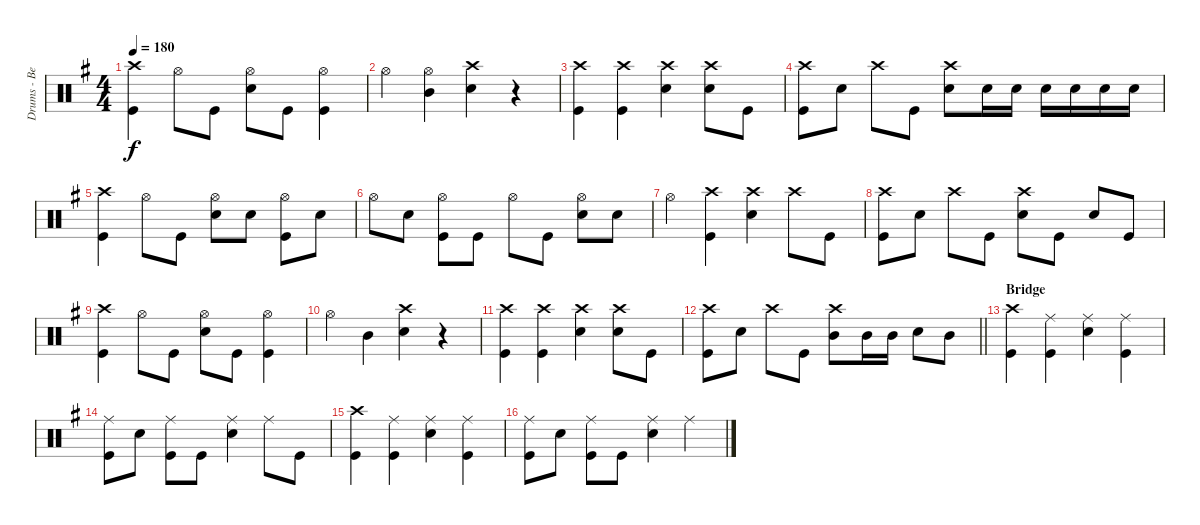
\track ("Drums - Ben Johnston" "Drums - Be") {instrument percussion}
\staff {score}
\articulation defaults
\ts (4 4)
\tempo 180
\clef neutral
\ks eminor
("Crash high (hit)" "Kick (hit)").4{dy f} "Hi-Hat (open)".8 "Kick (hit)".8 ("Hi-Hat (open)" "Snare (hit) 2").8 "Kick (hit)".8 ("Hi-Hat (open)" "Kick (hit)").4 |
"Hi-Hat (open)".4 ("Hi-Hat (open)" "Mid Tom (hit)").4 ("Crash high (hit)" "Snare (hit) 2").4 r.4 |
("Crash high (hit)" "Kick (hit)").4 ("Crash high (hit)" "Kick (hit)").4 ("Crash high (hit)" "Snare (hit) 2").4 ("Crash high (hit)" "Snare (hit) 2").8 "Kick (hit)".8 |
("Crash high (hit)" "Kick (hit)").8 "Snare (hit) 2".8 "Crash high (hit)".8 "Kick (hit)".8 ("Crash high (hit)" "Snare (hit) 2").8 "Snare (hit) 2".16 "Snare (hit) 2".16 "Snare (hit) 2".16 "Snare (hit) 2".16 "Snare (hit) 2".16 "Snare (hit) 2".16 |
("Crash high (hit)" "Kick (hit)").4 "Hi-Hat (open)".8 "Kick (hit)".8 ("Hi-Hat (open)" "Snare (hit) 2").8 "Snare (hit) 2".8 ("Hi-Hat (open)" "Kick (hit)").8 "Snare (hit) 2".8 |
"Hi-Hat (open)".8 "Snare (hit) 2".8 ("Hi-Hat (open)" "Kick (hit)").8 "Kick (hit)".8 "Hi-Hat (open)".8 "Kick (hit)".8 ("Hi-Hat (open)" "Snare (hit) 2").8 "Snare (hit) 2".8 |
"Hi-Hat (open)".4 ("Crash high (hit)" "Kick (hit)").4 ("Crash high (hit)" "Snare (hit) 2").4 "Crash high (hit)".8 "Kick (hit)".8 |
("Crash high (hit)" "Kick (hit)").8 "Snare (hit) 2".8 "Crash high (hit)".8 "Kick (hit)".8 ("Crash high (hit)" "Snare (hit) 2").8 "Kick (hit)".8 "Snare (hit) 2".8 "Kick (hit)".8 |
("Crash high (hit)" "Kick (hit)").4 "Hi-Hat (open)".8 "Kick (hit)".8 ("Hi-Hat (open)" "Snare (hit) 2").8 "Kick (hit)".8 ("Hi-Hat (open)" "Kick (hit)").4 |
"Hi-Hat (open)".4 "Mid Tom (hit)".4 ("Crash high (hit)" "Snare (hit) 2").4 r.4 |
("Crash high (hit)" "Kick (hit)").4 ("Crash high (hit)" "Kick (hit)").4 ("Crash high (hit)" "Snare (hit) 2").4 ("Crash high (hit)" "Snare (hit) 2").8 "Kick (hit)".8 |
\barLineRight lightlight
("Crash high (hit)" "Kick (hit)").8 "Snare (hit) 2".8 "Crash high (hit)".8 "Kick (hit)".8 ("Crash high (hit)" "Mid Tom (hit)").8 "Mid Tom (hit)".16 "Mid Tom (hit)".16 "Snare (hit) 2".8 "Mid Tom (hit)".8 |
\section ("" "Bridge")
("Crash high (hit)" "Kick (hit)").4 ("Ride (middle)" "Kick (hit)").4 ("Ride (middle)" "Snare (hit) 2").4 ("Ride (middle)" "Kick (hit)").4 |
("Ride (middle)" "Kick (hit)").8 "Snare (hit) 2".8 ("Ride (middle)" "Kick (hit)").8 "Kick (hit)".8 ("Ride (middle)" "Snare (hit) 2").4 "Ride (middle)".8 "Kick (hit)".8 |
("Crash high (hit)" "Kick (hit)").4 ("Ride (middle)" "Kick (hit)").4 ("Ride (middle)" "Snare (hit) 2").4 ("Ride (middle)" "Kick (hit)").4 |
("Ride (middle)" "Kick (hit)").8 "Snare (hit) 2".8 ("Ride (middle)" "Kick (hit)").8 "Kick (hit)".8 ("Ride (middle)" "Snare (hit) 2").4 "Ride (middle)".4
